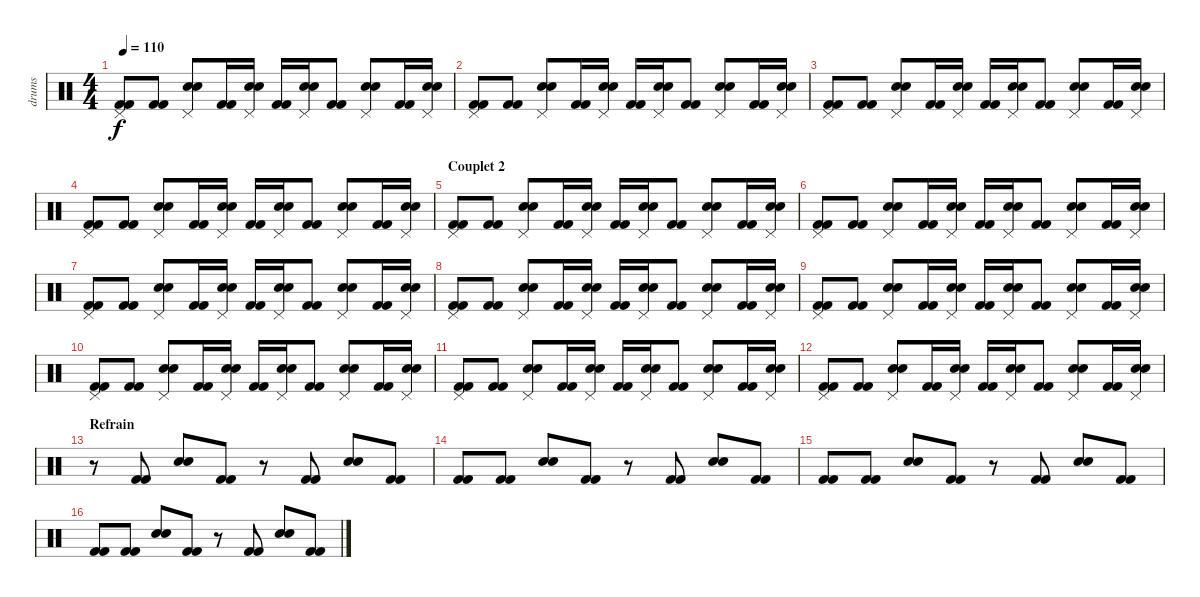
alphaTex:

\track ("drums" "drums") {instrument percussion}
\staff {score}
\articulation defaults
\ts (4 4)
\tempo 110
\clef neutral
\ks c
("Pedal Hi-Hat (hit)" "Kick (hit) 2" "Kick (hit) 2").8{dy f} ("Kick (hit) 2" "Kick (hit) 2").8 ("Snare (hit) 2" "Snare (hit) 2" "Pedal Hi-Hat (hit)").8 ("Kick (hit) 2" "Kick (hit) 2").16 ("Snare (hit) 2" "Snare (hit) 2" "Pedal Hi-Hat (hit)").16 ("Kick (hit) 2" "Kick (hit) 2").16 ("Snare (hit) 2" "Snare (hit) 2" "Pedal Hi-Hat (hit)").16 ("Kick (hit) 2" "Kick (hit) 2").8 ("Snare (hit) 2" "Snare (hit) 2" "Pedal Hi-Hat (hit)").8 ("Kick (hit) 2" "Kick (hit) 2").16 ("Snare (hit) 2" "Snare (hit) 2" "Pedal Hi-Hat (hit)").16 |
("Pedal Hi-Hat (hit)" "Kick (hit) 2" "Kick (hit) 2").8 ("Kick (hit) 2" "Kick (hit) 2").8 ("Snare (hit) 2" "Snare (hit) 2" "Pedal Hi-Hat (hit)").8 ("Kick (hit) 2" "Kick (hit) 2").16 ("Snare (hit) 2" "Snare (hit) 2" "Pedal Hi-Hat (hit)").16 ("Kick (hit) 2" "Kick (hit) 2").16 ("Snare (hit) 2" "Snare (hit) 2" "Pedal Hi-Hat (hit)").16 ("Kick (hit) 2" "Kick (hit) 2").8 ("Snare (hit) 2" "Snare (hit) 2" "Pedal Hi-Hat (hit)").8 ("Kick (hit) 2" "Kick (hit) 2").16 ("Snare (hit) 2" "Snare (hit) 2" "Pedal Hi-Hat (hit)").16 |
("Pedal Hi-Hat (hit)" "Kick (hit) 2" "Kick (hit) 2").8 ("Kick (hit) 2" "Kick (hit) 2").8 ("Snare (hit) 2" "Snare (hit) 2" "Pedal Hi-Hat (hit)").8 ("Kick (hit) 2" "Kick (hit) 2").16 ("Snare (hit) 2" "Snare (hit) 2" "Pedal Hi-Hat (hit)").16 ("Kick (hit) 2" "Kick (hit) 2").16 ("Snare (hit) 2" "Snare (hit) 2" "Pedal Hi-Hat (hit)").16 ("Kick (hit) 2" "Kick (hit) 2").8 ("Snare (hit) 2" "Snare (hit) 2" "Pedal Hi-Hat (hit)").8 ("Kick (hit) 2" "Kick (hit) 2").16 ("Snare (hit) 2" "Snare (hit) 2" "Pedal Hi-Hat (hit)").16 |
("Pedal Hi-Hat (hit)" "Kick (hit) 2" "Kick (hit) 2").8 ("Kick (hit) 2" "Kick (hit) 2").8 ("Snare (hit) 2" "Snare (hit) 2" "Pedal Hi-Hat (hit)").8 ("Kick (hit) 2" "Kick (hit) 2").16 ("Snare (hit) 2" "Snare (hit) 2" "Pedal Hi-Hat (hit)").16 ("Kick (hit) 2" "Kick (hit) 2").16 ("Snare (hit) 2" "Snare (hit) 2" "Pedal Hi-Hat (hit)").16 ("Kick (hit) 2" "Kick (hit) 2").8 ("Snare (hit) 2" "Snare (hit) 2" "Pedal Hi-Hat (hit)").8 ("Kick (hit) 2" "Kick (hit) 2").16 ("Snare (hit) 2" "Snare (hit) 2" "Pedal Hi-Hat (hit)").16 |
\section ("" "Couplet 2")
("Pedal Hi-Hat (hit)" "Kick (hit) 2" "Kick (hit) 2").8 ("Kick (hit) 2" "Kick (hit) 2").8 ("Snare (hit) 2" "Snare (hit) 2" "Pedal Hi-Hat (hit)").8 ("Kick (hit) 2" "Kick (hit) 2").16 ("Snare (hit) 2" "Snare (hit) 2" "Pedal Hi-Hat (hit)").16 ("Kick (hit) 2" "Kick (hit) 2").16 ("Snare (hit) 2" "Snare (hit) 2" "Pedal Hi-Hat (hit)").16 ("Kick (hit) 2" "Kick (hit) 2").8 ("Snare (hit) 2" "Snare (hit) 2" "Pedal Hi-Hat (hit)").8 ("Kick (hit) 2" "Kick (hit) 2").16 ("Snare (hit) 2" "Snare (hit) 2" "Pedal Hi-Hat (hit)").16 |
("Pedal Hi-Hat (hit)" "Kick (hit) 2" "Kick (hit) 2").8 ("Kick (hit) 2" "Kick (hit) 2").8 ("Snare (hit) 2" "Snare (hit) 2" "Pedal Hi-Hat (hit)").8 ("Kick (hit) 2" "Kick (hit) 2").16 ("Snare (hit) 2" "Snare (hit) 2" "Pedal Hi-Hat (hit)").16 ("Kick (hit) 2" "Kick (hit) 2").16 ("Snare (hit) 2" "Snare (hit) 2" "Pedal Hi-Hat (hit)").16 ("Kick (hit) 2" "Kick (hit) 2").8 ("Snare (hit) 2" "Snare (hit) 2" "Pedal Hi-Hat (hit)").8 ("Kick (hit) 2" "Kick (hit) 2").16 ("Snare (hit) 2" "Snare (hit) 2" "Pedal Hi-Hat (hit)").16 |
("Pedal Hi-Hat (hit)" "Kick (hit) 2" "Kick (hit) 2").8 ("Kick (hit) 2" "Kick (hit) 2").8 ("Snare (hit) 2" "Snare (hit) 2" "Pedal Hi-Hat (hit)").8 ("Kick (hit) 2" "Kick (hit) 2").16 ("Snare (hit) 2" "Snare (hit) 2" "Pedal Hi-Hat (hit)").16 ("Kick (hit) 2" "Kick (hit) 2").16 ("Snare (hit) 2" "Snare (hit) 2" "Pedal Hi-Hat (hit)").16 ("Kick (hit) 2" "Kick (hit) 2").8 ("Snare (hit) 2" "Snare (hit) 2" "Pedal Hi-Hat (hit)").8 ("Kick (hit) 2" "Kick (hit) 2").16 ("Snare (hit) 2" "Snare (hit) 2" "Pedal Hi-Hat (hit)").16 |
("Pedal Hi-Hat (hit)" "Kick (hit) 2" "Kick (hit) 2").8 ("Kick (hit) 2" "Kick (hit) 2").8 ("Snare (hit) 2" "Snare (hit) 2" "Pedal Hi-Hat (hit)").8 ("Kick (hit) 2" "Kick (hit) 2").16 ("Snare (hit) 2" "Snare (hit) 2" "Pedal Hi-Hat (hit)").16 ("Kick (hit) 2" "Kick (hit) 2").16 ("Snare (hit) 2" "Snare (hit) 2" "Pedal Hi-Hat (hit)").16 ("Kick (hit) 2" "Kick (hit) 2").8 ("Snare (hit) 2" "Snare (hit) 2" "Pedal Hi-Hat (hit)").8 ("Kick (hit) 2" "Kick (hit) 2").16 ("Snare (hit) 2" "Snare (hit) 2" "Pedal Hi-Hat (hit)").16 |
("Pedal Hi-Hat (hit)" "Kick (hit) 2" "Kick (hit) 2").8 ("Kick (hit) 2" "Kick (hit) 2").8 ("Snare (hit) 2" "Snare (hit) 2" "Pedal Hi-Hat (hit)").8 ("Kick (hit) 2" "Kick (hit) 2").16 ("Snare (hit) 2" "Snare (hit) 2" "Pedal Hi-Hat (hit)").16 ("Kick (hit) 2" "Kick (hit) 2").16 ("Snare (hit) 2" "Snare (hit) 2" "Pedal Hi-Hat (hit)").16 ("Kick (hit) 2" "Kick (hit) 2").8 ("Snare (hit) 2" "Snare (hit) 2" "Pedal Hi-Hat (hit)").8 ("Kick (hit) 2" "Kick (hit) 2").16 ("Snare (hit) 2" "Snare (hit) 2" "Pedal Hi-Hat (hit)").16 |
("Pedal Hi-Hat (hit)" "Kick (hit) 2" "Kick (hit) 2").8 ("Kick (hit) 2" "Kick (hit) 2").8 ("Snare (hit) 2" "Snare (hit) 2" "Pedal Hi-Hat (hit)").8 ("Kick (hit) 2" "Kick (hit) 2").16 ("Snare (hit) 2" "Snare (hit) 2" "Pedal Hi-Hat (hit)").16 ("Kick (hit) 2" "Kick (hit) 2").16 ("Snare (hit) 2" "Snare (hit) 2" "Pedal Hi-Hat (hit)").16 ("Kick (hit) 2" "Kick (hit) 2").8 ("Snare (hit) 2" "Snare (hit) 2" "Pedal Hi-Hat (hit)").8 ("Kick (hit) 2" "Kick (hit) 2").16 ("Snare (hit) 2" "Snare (hit) 2" "Pedal Hi-Hat (hit)").16 |
("Pedal Hi-Hat (hit)" "Kick (hit) 2" "Kick (hit) 2").8 ("Kick (hit) 2" "Kick (hit) 2").8 ("Snare (hit) 2" "Snare (hit) 2" "Pedal Hi-Hat (hit)").8 ("Kick (hit) 2" "Kick (hit) 2").16 ("Snare (hit) 2" "Snare (hit) 2" "Pedal Hi-Hat (hit)").16 ("Kick (hit) 2" "Kick (hit) 2").16 ("Snare (hit) 2" "Snare (hit) 2" "Pedal Hi-Hat (hit)").16 ("Kick (hit) 2" "Kick (hit) 2").8 ("Snare (hit) 2" "Snare (hit) 2" "Pedal Hi-Hat (hit)").8 ("Kick (hit) 2" "Kick (hit) 2").16 ("Snare (hit) 2" "Snare (hit) 2" "Pedal Hi-Hat (hit)").16 |
("Pedal Hi-Hat (hit)" "Kick (hit) 2" "Kick (hit) 2").8 ("Kick (hit) 2" "Kick (hit) 2").8 ("Snare (hit) 2" "Snare (hit) 2" "Pedal Hi-Hat (hit)").8 ("Kick (hit) 2" "Kick (hit) 2").16 ("Snare (hit) 2" "Snare (hit) 2" "Pedal Hi-Hat (hit)").16 ("Kick (hit) 2" "Kick (hit) 2").16 ("Snare (hit) 2" "Snare (hit) 2" "Pedal Hi-Hat (hit)").16 ("Kick (hit) 2" "Kick (hit) 2").8 ("Snare (hit) 2" "Snare (hit) 2" "Pedal Hi-Hat (hit)").8 ("Kick (hit) 2" "Kick (hit) 2").16 ("Snare (hit) 2" "Snare (hit) 2" "Pedal Hi-Hat (hit)").16 |
\section ("" "Refrain")
r.8 ("Kick (hit) 2" "Kick (hit) 2").8 ("Snare (hit) 2" "Snare (hit) 2").8 ("Kick (hit) 2" "Kick (hit) 2").8 r.8 ("Kick (hit) 2" "Kick (hit) 2").8 ("Snare (hit) 2" "Snare (hit) 2").8 ("Kick (hit) 2" "Kick (hit) 2").8 |
("Kick (hit) 2" "Kick (hit) 2").8 ("Kick (hit) 2" "Kick (hit) 2").8 ("Snare (hit) 2" "Snare (hit) 2").8 ("Kick (hit) 2" "Kick (hit) 2").8 r.8 ("Kick (hit) 2" "Kick (hit) 2").8 ("Snare (hit) 2" "Snare (hit) 2").8 ("Kick (hit) 2" "Kick (hit) 2").8 |
("Kick (hit) 2" "Kick (hit) 2").8 ("Kick (hit) 2" "Kick (hit) 2").8 ("Snare (hit) 2" "Snare (hit) 2").8 ("Kick (hit) 2" "Kick (hit) 2").8 r.8 ("Kick (hit) 2" "Kick (hit) 2").8 ("Snare (hit) 2" "Snare (hit) 2").8 ("Kick (hit) 2" "Kick (hit) 2").8 |
("Kick (hit) 2" "Kick (hit) 2").8 ("Kick (hit) 2" "Kick (hit) 2").8 ("Snare (hit) 2" "Snare (hit) 2").8 ("Kick (hit) 2" "Kick (hit) 2").8 r.8 ("Kick (hit) 2" "Kick (hit) 2").8 ("Snare (hit) 2" "Snare (hit) 2").8 ("Kick (hit) 2" "Kick (hit) 2").8
